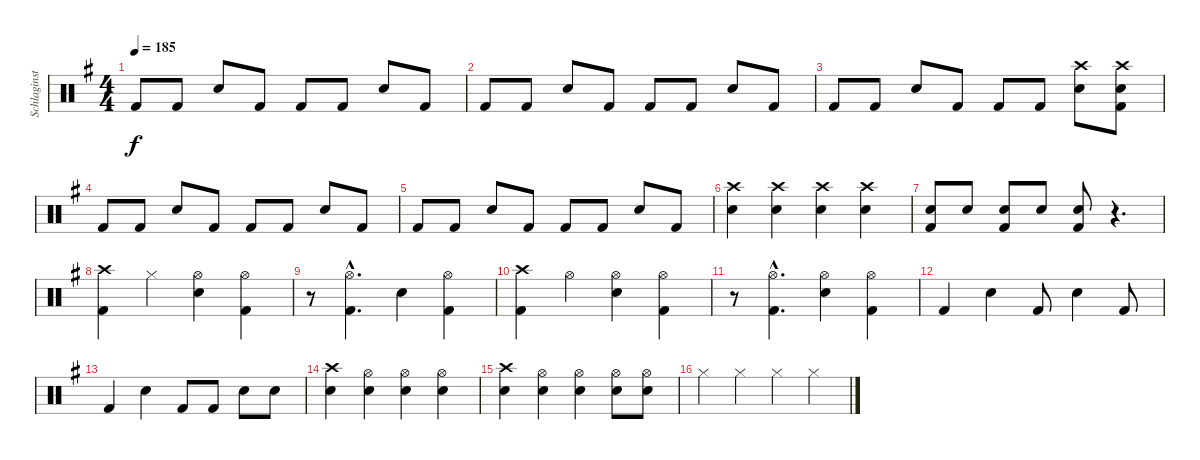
\track ("Schlaginstrumente - Auswahl" "Schlaginst") {instrument percussion}
\staff {score}
\articulation defaults
\ts (4 4)
\tempo 185
\clef neutral
\ks eminor "Kick (hit) 2".8{dy f} "Kick (hit) 2".8 "Snare (hit) 2".8 "Kick (hit) 2".8 "Kick (hit) 2".8 "Kick (hit) 2".8 "Snare (hit) 2".8 "Kick (hit) 2".8
|
"Kick (hit) 2".8 "Kick (hit) 2".8 "Snare (hit) 2".8 "Kick (hit) 2".8 "Kick (hit) 2".8 "Kick (hit) 2".8 "Snare (hit) 2".8 "Kick (hit) 2".8 |
"Kick (hit) 2".8 "Kick (hit) 2".8 "Snare (hit) 2".8 "Kick (hit) 2".8 "Kick (hit) 2".8 "Kick (hit) 2".8 ("Crash high (hit)" "Snare (hit) 2").8 ("Crash high (hit)" "Snare (hit) 2" "Kick (hit) 2").8 |
"Kick (hit) 2".8 "Kick (hit) 2".8 "Snare (hit) 2".8 "Kick (hit) 2".8 "Kick (hit) 2".8 "Kick (hit) 2".8 "Snare (hit) 2".8 "Kick (hit) 2".8 |
"Kick (hit) 2".8 "Kick (hit) 2".8 "Snare (hit) 2".8 "Kick (hit) 2".8 "Kick (hit) 2".8 "Kick (hit) 2".8 "Snare (hit) 2".8 "Kick (hit) 2".8 |
("Crash high (hit)" "Snare (hit) 2").4 ("Crash high (hit)" "Snare (hit) 2").4 ("Crash high (hit)" "Snare (hit) 2").4 ("Crash high (hit)" "Snare (hit) 2").4 |
("Snare (hit) 2" "Kick (hit) 2").8 "Snare (hit) 2".8 ("Snare (hit) 2" "Kick (hit) 2").8 "Snare (hit) 2".8 ("Snare (hit) 2" "Kick (hit) 2").8 r.4{d} |
("Crash high (hit)" "Kick (hit) 2").4 "Hi-Hat (closed)".4 ("Hi-Hat (open)" "Snare (hit) 2").4 ("Hi-Hat (open)" "Kick (hit) 2").4 |
r.8 ("Hi-Hat (open)"{hac} "Kick (hit) 2"{hac}).4{d} "Snare (hit) 2".4 ("Hi-Hat (open)" "Kick (hit) 2").4 |
("Crash high (hit)" "Kick (hit) 2").4 "Hi-Hat (open)".4 ("Hi-Hat (open)" "Snare (hit) 2").4 ("Hi-Hat (open)" "Kick (hit) 2").4 |
r.8 ("Hi-Hat (open)"{hac} "Kick (hit) 2"{hac}).4{d} ("Hi-Hat (open)" "Snare (hit) 2").4 ("Hi-Hat (open)" "Kick (hit) 2").4 |
"Kick (hit) 2".4 "Snare (hit) 2".4 "Kick (hit) 2".8 "Snare (hit) 2".4 "Kick (hit) 2".8 |
"Kick (hit) 2".4 "Snare (hit) 2".4 "Kick (hit) 2".8 "Kick (hit) 2".8 "Snare (hit) 2".8 "Snare (hit) 2".8 |
("Crash high (hit)" "Snare (hit) 2").4 ("Hi-Hat (open)" "Snare (hit) 2").4 ("Hi-Hat (open)" "Snare (hit) 2").4 ("Hi-Hat (open)" "Snare (hit) 2").4 |
("Crash high (hit)" "Snare (hit) 2").4 ("Hi-Hat (open)" "Snare (hit) 2").4 ("Hi-Hat (open)" "Snare (hit) 2").4 ("Hi-Hat (open)" "Snare (hit) 2").8 ("Hi-Hat (open)" "Snare (hit) 2").8 |
"Hi-Hat (closed)".4 "Hi-Hat (closed)".4 "Hi-Hat (closed)".4 "Hi-Hat (closed)".4
